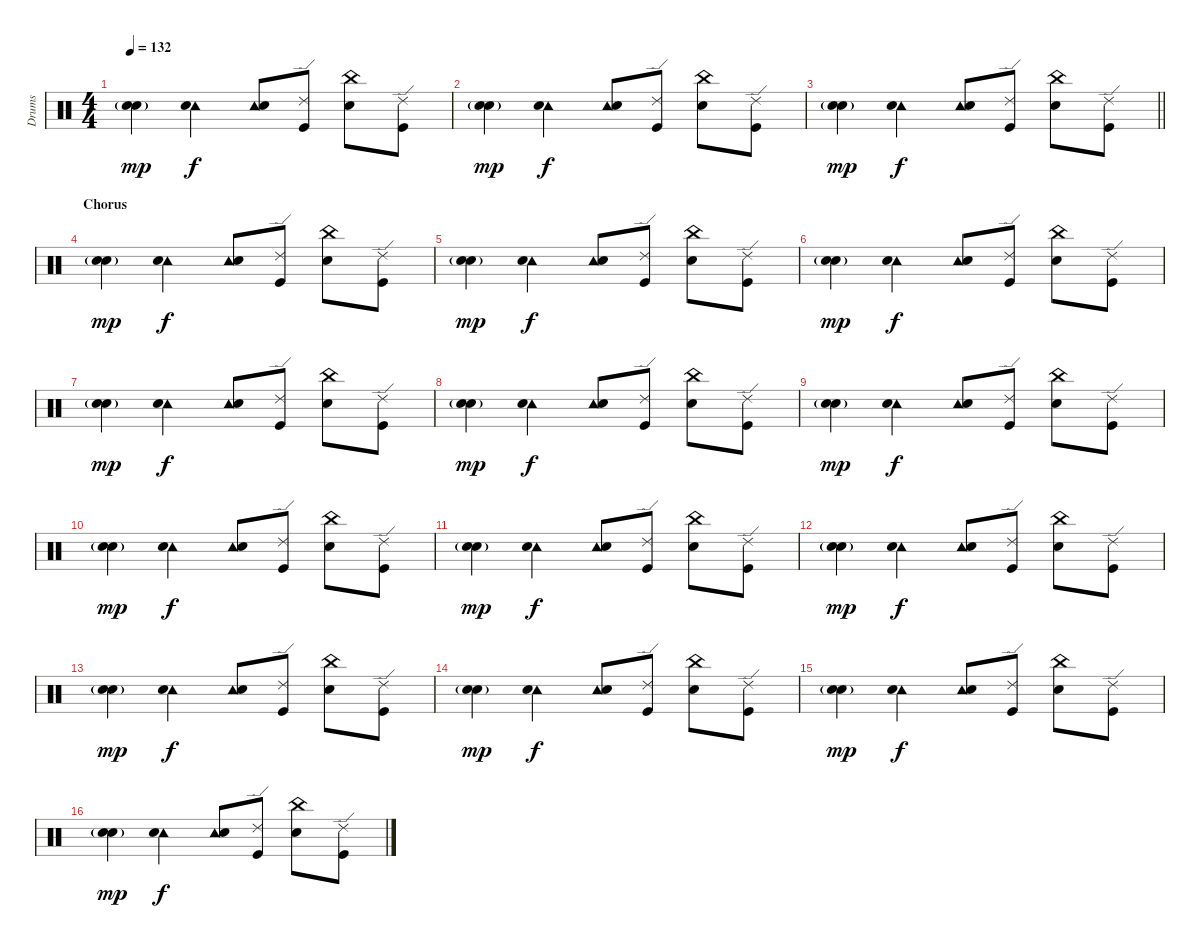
\track ("Drums" "Drums") {instrument percussion}
\staff {score}
\articulation defaults
\ts (4 4)
\tempo 132
\clef neutral
\ks c
("Snare (hit) 2" "Electric Snare (hit)"{g}).4{dy mp} ("Tambourine (hit)" "Snare (hit) 2").4{dy f} ("Tambourine (hit)" "Snare (hit) 2").8 ("Ride (edge) 2" "Kick (hit)").8 ("China (hit)" "Snare (hit) 2").8 ("Ride (edge) 2" "Kick (hit)").8 |
("Snare (hit) 2" "Electric Snare (hit)"{g}).4{dy mp} ("Tambourine (hit)" "Snare (hit) 2").4{dy f} ("Tambourine (hit)" "Snare (hit) 2").8 ("Ride (edge) 2" "Kick (hit)").8 ("China (hit)" "Snare (hit) 2").8 ("Ride (edge) 2" "Kick (hit)").8 |
\barLineRight lightlight
("Snare (hit) 2" "Electric Snare (hit)"{g}).4{dy mp} ("Tambourine (hit)" "Snare (hit) 2").4{dy f} ("Tambourine (hit)" "Snare (hit) 2").8 ("Ride (edge) 2" "Kick (hit)").8 ("China (hit)" "Snare (hit) 2").8 ("Ride (edge) 2" "Kick (hit)").8 |
\section ("" "Chorus")
("Snare (hit) 2" "Electric Snare (hit)"{g}).4{dy mp} ("Tambourine (hit)" "Snare (hit) 2").4{dy f} ("Tambourine (hit)" "Snare (hit) 2").8 ("Ride (edge) 2" "Kick (hit)").8 ("China (hit)" "Snare (hit) 2").8 ("Ride (edge) 2" "Kick (hit)").8 |
("Snare (hit) 2" "Electric Snare (hit)"{g}).4{dy mp} ("Tambourine (hit)" "Snare (hit) 2").4{dy f} ("Tambourine (hit)" "Snare (hit) 2").8 ("Ride (edge) 2" "Kick (hit)").8 ("China (hit)" "Snare (hit) 2").8 ("Ride (edge) 2" "Kick (hit)").8 |
("Snare (hit) 2" "Electric Snare (hit)"{g}).4{dy mp} ("Tambourine (hit)" "Snare (hit) 2").4{dy f} ("Tambourine (hit)" "Snare (hit) 2").8 ("Ride (edge) 2" "Kick (hit)").8 ("China (hit)" "Snare (hit) 2").8 ("Ride (edge) 2" "Kick (hit)").8 |
("Snare (hit) 2" "Electric Snare (hit)"{g}).4{dy mp} ("Tambourine (hit)" "Snare (hit) 2").4{dy f} ("Tambourine (hit)" "Snare (hit) 2").8 ("Ride (edge) 2" "Kick (hit)").8 ("China (hit)" "Snare (hit) 2").8 ("Ride (edge) 2" "Kick (hit)").8 |
("Snare (hit) 2" "Electric Snare (hit)"{g}).4{dy mp} ("Tambourine (hit)" "Snare (hit) 2").4{dy f} ("Tambourine (hit)" "Snare (hit) 2").8 ("Ride (edge) 2" "Kick (hit)").8 ("China (hit)" "Snare (hit) 2").8 ("Ride (edge) 2" "Kick (hit)").8 |
("Snare (hit) 2" "Electric Snare (hit)"{g}).4{dy mp} ("Tambourine (hit)" "Snare (hit) 2").4{dy f} ("Tambourine (hit)" "Snare (hit) 2").8 ("Ride (edge) 2" "Kick (hit)").8 ("China (hit)" "Snare (hit) 2").8 ("Ride (edge) 2" "Kick (hit)").8 |
("Snare (hit) 2" "Electric Snare (hit)"{g}).4{dy mp} ("Tambourine (hit)" "Snare (hit) 2").4{dy f} ("Tambourine (hit)" "Snare (hit) 2").8 ("Ride (edge) 2" "Kick (hit)").8 ("China (hit)" "Snare (hit) 2").8 ("Ride (edge) 2" "Kick (hit)").8 |
("Snare (hit) 2" "Electric Snare (hit)"{g}).4{dy mp} ("Tambourine (hit)" "Snare (hit) 2").4{dy f} ("Tambourine (hit)" "Snare (hit) 2").8 ("Ride (edge) 2" "Kick (hit)").8 ("China (hit)" "Snare (hit) 2").8 ("Ride (edge) 2" "Kick (hit)").8 |
("Snare (hit) 2" "Electric Snare (hit)"{g}).4{dy mp} ("Tambourine (hit)" "Snare (hit) 2").4{dy f} ("Tambourine (hit)" "Snare (hit) 2").8 ("Ride (edge) 2" "Kick (hit)").8 ("China (hit)" "Snare (hit) 2").8 ("Ride (edge) 2" "Kick (hit)").8 |
("Snare (hit) 2" "Electric Snare (hit)"{g}).4{dy mp} ("Tambourine (hit)" "Snare (hit) 2").4{dy f} ("Tambourine (hit)" "Snare (hit) 2").8 ("Ride (edge) 2" "Kick (hit)").8 ("China (hit)" "Snare (hit) 2").8 ("Ride (edge) 2" "Kick (hit)").8 |
("Snare (hit) 2" "Electric Snare (hit)"{g}).4{dy mp} ("Tambourine (hit)" "Snare (hit) 2").4{dy f} ("Tambourine (hit)" "Snare (hit) 2").8 ("Ride (edge) 2" "Kick (hit)").8 ("China (hit)" "Snare (hit) 2").8 ("Ride (edge) 2" "Kick (hit)").8 |
("Snare (hit) 2" "Electric Snare (hit)"{g}).4{dy mp} ("Tambourine (hit)" "Snare (hit) 2").4{dy f} ("Tambourine (hit)" "Snare (hit) 2").8 ("Ride (edge) 2" "Kick (hit)").8 ("China (hit)" "Snare (hit) 2").8 ("Ride (edge) 2" "Kick (hit)").8 |
("Snare (hit) 2" "Electric Snare (hit)"{g}).4{dy mp} ("Tambourine (hit)" "Snare (hit) 2").4{dy f} ("Tambourine (hit)" "Snare (hit) 2").8 ("Ride (edge) 2" "Kick (hit)").8 ("China (hit)" "Snare (hit) 2").8 ("Ride (edge) 2" "Kick (hit)").8
